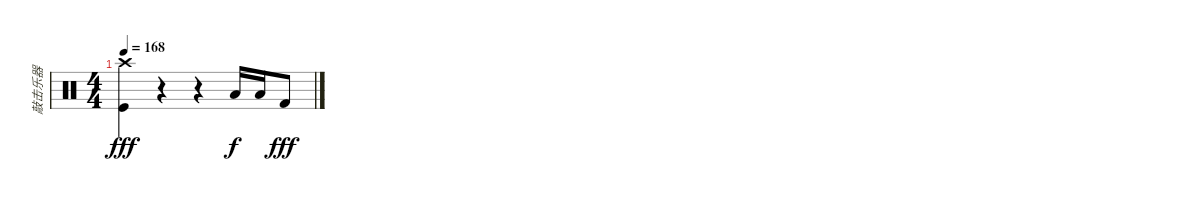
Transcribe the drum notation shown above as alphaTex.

\track ("敲击乐器" "敲击乐器") {instrument percussion}
\staff {score}
\articulation defaults
\ts (4 4)
\tempo 168
\clef neutral
\ks c
("Crash high (hit)" "Kick (hit)").4{dy fff} r.4 r.4 "Low Floor Tom (hit)".16{dy f} "Low Floor Tom (hit)".16 "Kick (hit) 2".8{dy fff}
